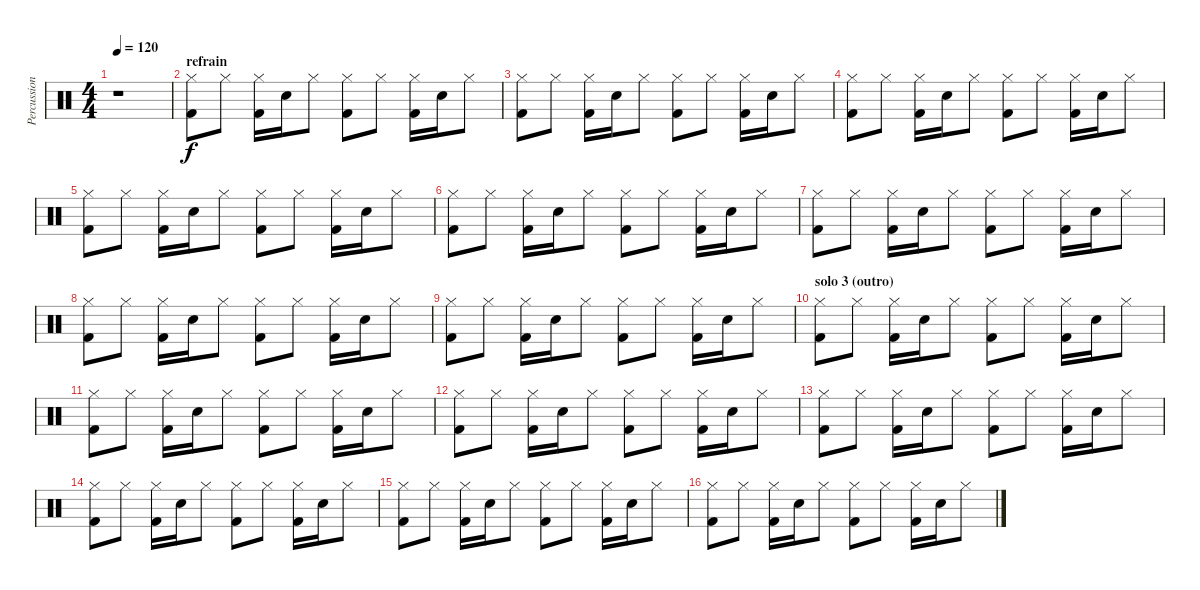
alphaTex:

\track ("Percussions" "Percussion") {instrument percussion}
\staff {score}
\articulation defaults
\ts (4 4)
\tempo 120
\clef neutral
\ks c
r.1{dy f} |
\section ("" "refrain")
("Hi-Hat (closed)" "Kick (hit) 2").8 "Hi-Hat (closed)".8 ("Hi-Hat (closed)" "Kick (hit) 2").16 "Snare (hit) 2".16 "Hi-Hat (closed)".8 ("Hi-Hat (closed)" "Kick (hit) 2").8 "Hi-Hat (closed)".8 ("Hi-Hat (closed)" "Kick (hit) 2").16 "Snare (hit) 2".16 "Hi-Hat (closed)".8 |
("Hi-Hat (closed)" "Kick (hit) 2").8 "Hi-Hat (closed)".8 ("Hi-Hat (closed)" "Kick (hit) 2").16 "Snare (hit) 2".16 "Hi-Hat (closed)".8 ("Hi-Hat (closed)" "Kick (hit) 2").8 "Hi-Hat (closed)".8 ("Hi-Hat (closed)" "Kick (hit) 2").16 "Snare (hit) 2".16 "Hi-Hat (closed)".8 |
("Hi-Hat (closed)" "Kick (hit) 2").8 "Hi-Hat (closed)".8 ("Hi-Hat (closed)" "Kick (hit) 2").16 "Snare (hit) 2".16 "Hi-Hat (closed)".8 ("Hi-Hat (closed)" "Kick (hit) 2").8 "Hi-Hat (closed)".8 ("Hi-Hat (closed)" "Kick (hit) 2").16 "Snare (hit) 2".16 "Hi-Hat (closed)".8 |
("Hi-Hat (closed)" "Kick (hit) 2").8 "Hi-Hat (closed)".8 ("Hi-Hat (closed)" "Kick (hit) 2").16 "Snare (hit) 2".16 "Hi-Hat (closed)".8 ("Hi-Hat (closed)" "Kick (hit) 2").8 "Hi-Hat (closed)".8 ("Hi-Hat (closed)" "Kick (hit) 2").16 "Snare (hit) 2".16 "Hi-Hat (closed)".8 |
("Hi-Hat (closed)" "Kick (hit) 2").8 "Hi-Hat (closed)".8 ("Hi-Hat (closed)" "Kick (hit) 2").16 "Snare (hit) 2".16 "Hi-Hat (closed)".8 ("Hi-Hat (closed)" "Kick (hit) 2").8 "Hi-Hat (closed)".8 ("Hi-Hat (closed)" "Kick (hit) 2").16 "Snare (hit) 2".16 "Hi-Hat (closed)".8 |
("Hi-Hat (closed)" "Kick (hit) 2").8 "Hi-Hat (closed)".8 ("Hi-Hat (closed)" "Kick (hit) 2").16 "Snare (hit) 2".16 "Hi-Hat (closed)".8 ("Hi-Hat (closed)" "Kick (hit) 2").8 "Hi-Hat (closed)".8 ("Hi-Hat (closed)" "Kick (hit) 2").16 "Snare (hit) 2".16 "Hi-Hat (closed)".8 |
("Hi-Hat (closed)" "Kick (hit) 2").8 "Hi-Hat (closed)".8 ("Hi-Hat (closed)" "Kick (hit) 2").16 "Snare (hit) 2".16 "Hi-Hat (closed)".8 ("Hi-Hat (closed)" "Kick (hit) 2").8 "Hi-Hat (closed)".8 ("Hi-Hat (closed)" "Kick (hit) 2").16 "Snare (hit) 2".16 "Hi-Hat (closed)".8 |
("Hi-Hat (closed)" "Kick (hit) 2").8 "Hi-Hat (closed)".8 ("Hi-Hat (closed)" "Kick (hit) 2").16 "Snare (hit) 2".16 "Hi-Hat (closed)".8 ("Hi-Hat (closed)" "Kick (hit) 2").8 "Hi-Hat (closed)".8 ("Hi-Hat (closed)" "Kick (hit) 2").16 "Snare (hit) 2".16 "Hi-Hat (closed)".8 |
\section ("" "solo 3 (outro)")
("Hi-Hat (closed)" "Kick (hit) 2").8 "Hi-Hat (closed)".8 ("Hi-Hat (closed)" "Kick (hit) 2").16 "Snare (hit) 2".16 "Hi-Hat (closed)".8 ("Hi-Hat (closed)" "Kick (hit) 2").8 "Hi-Hat (closed)".8 ("Hi-Hat (closed)" "Kick (hit) 2").16 "Snare (hit) 2".16 "Hi-Hat (closed)".8 |
("Hi-Hat (closed)" "Kick (hit) 2").8 "Hi-Hat (closed)".8 ("Hi-Hat (closed)" "Kick (hit) 2").16 "Snare (hit) 2".16 "Hi-Hat (closed)".8 ("Hi-Hat (closed)" "Kick (hit) 2").8 "Hi-Hat (closed)".8 ("Hi-Hat (closed)" "Kick (hit) 2").16 "Snare (hit) 2".16 "Hi-Hat (closed)".8 |
("Hi-Hat (closed)" "Kick (hit) 2").8 "Hi-Hat (closed)".8 ("Hi-Hat (closed)" "Kick (hit) 2").16 "Snare (hit) 2".16 "Hi-Hat (closed)".8 ("Hi-Hat (closed)" "Kick (hit) 2").8 "Hi-Hat (closed)".8 ("Hi-Hat (closed)" "Kick (hit) 2").16 "Snare (hit) 2".16 "Hi-Hat (closed)".8 |
("Hi-Hat (closed)" "Kick (hit) 2").8 "Hi-Hat (closed)".8 ("Hi-Hat (closed)" "Kick (hit) 2").16 "Snare (hit) 2".16 "Hi-Hat (closed)".8 ("Hi-Hat (closed)" "Kick (hit) 2").8 "Hi-Hat (closed)".8 ("Hi-Hat (closed)" "Kick (hit) 2").16 "Snare (hit) 2".16 "Hi-Hat (closed)".8 |
("Hi-Hat (closed)" "Kick (hit) 2").8 "Hi-Hat (closed)".8 ("Hi-Hat (closed)" "Kick (hit) 2").16 "Snare (hit) 2".16 "Hi-Hat (closed)".8 ("Hi-Hat (closed)" "Kick (hit) 2").8 "Hi-Hat (closed)".8 ("Hi-Hat (closed)" "Kick (hit) 2").16 "Snare (hit) 2".16 "Hi-Hat (closed)".8 |
("Hi-Hat (closed)" "Kick (hit) 2").8 "Hi-Hat (closed)".8 ("Hi-Hat (closed)" "Kick (hit) 2").16 "Snare (hit) 2".16 "Hi-Hat (closed)".8 ("Hi-Hat (closed)" "Kick (hit) 2").8 "Hi-Hat (closed)".8 ("Hi-Hat (closed)" "Kick (hit) 2").16 "Snare (hit) 2".16 "Hi-Hat (closed)".8 |
("Hi-Hat (closed)" "Kick (hit) 2").8 "Hi-Hat (closed)".8 ("Hi-Hat (closed)" "Kick (hit) 2").16 "Snare (hit) 2".16 "Hi-Hat (closed)".8 ("Hi-Hat (closed)" "Kick (hit) 2").8 "Hi-Hat (closed)".8 ("Hi-Hat (closed)" "Kick (hit) 2").16 "Snare (hit) 2".16 "Hi-Hat (closed)".8
